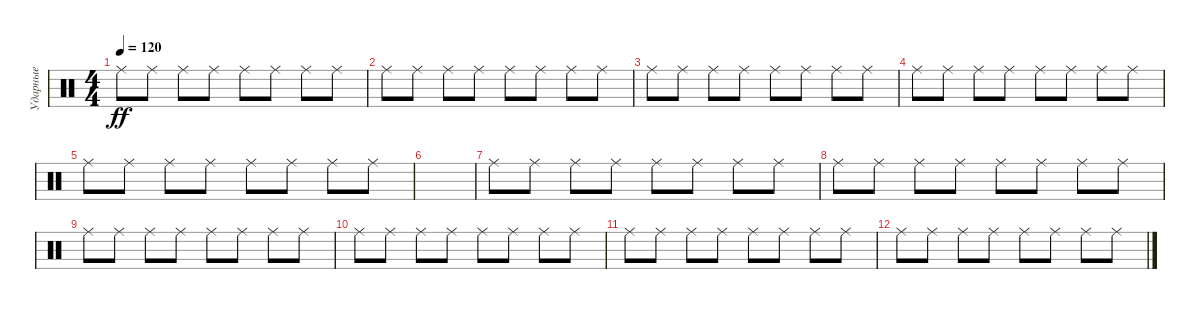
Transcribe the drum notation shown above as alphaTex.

\track ("Ударные" "Ударные") {instrument percussion}
\staff {score}
\articulation defaults
\ts (4 4)
\tempo 120
\clef neutral
\ks c "Ride (middle)".8{dy ff} "Ride (middle)".8 "Ride (middle)".8 "Ride (middle)".8 "Ride (middle)".8 "Ride (middle)".8 "Ride (middle)".8 "Ride (middle)".8
|
"Ride (middle)".8 "Ride (middle)".8 "Ride (middle)".8 "Ride (middle)".8 "Ride (middle)".8 "Ride (middle)".8 "Ride (middle)".8 "Ride (middle)".8 |
"Ride (middle)".8 "Ride (middle)".8 "Ride (middle)".8 "Ride (middle)".8 "Ride (middle)".8 "Ride (middle)".8 "Ride (middle)".8 "Ride (middle)".8 |
"Ride (middle)".8 "Ride (middle)".8 "Ride (middle)".8 "Ride (middle)".8 "Ride (middle)".8 "Ride (middle)".8 "Ride (middle)".8 "Ride (middle)".8 |
"Ride (middle)".8 "Ride (middle)".8 "Ride (middle)".8 "Ride (middle)".8 "Ride (middle)".8 "Ride (middle)".8 "Ride (middle)".8 "Ride (middle)".8 |
|
"Ride (middle)".8 "Ride (middle)".8 "Ride (middle)".8 "Ride (middle)".8 "Ride (middle)".8 "Ride (middle)".8 "Ride (middle)".8 "Ride (middle)".8 |
"Ride (middle)".8 "Ride (middle)".8 "Ride (middle)".8 "Ride (middle)".8 "Ride (middle)".8 "Ride (middle)".8 "Ride (middle)".8 "Ride (middle)".8 |
"Ride (middle)".8 "Ride (middle)".8 "Ride (middle)".8 "Ride (middle)".8 "Ride (middle)".8 "Ride (middle)".8 "Ride (middle)".8 "Ride (middle)".8 |
"Ride (middle)".8 "Ride (middle)".8 "Ride (middle)".8 "Ride (middle)".8 "Ride (middle)".8 "Ride (middle)".8 "Ride (middle)".8 "Ride (middle)".8 |
"Ride (middle)".8 "Ride (middle)".8 "Ride (middle)".8 "Ride (middle)".8 "Ride (middle)".8 "Ride (middle)".8 "Ride (middle)".8 "Ride (middle)".8 |
"Ride (middle)".8 "Ride (middle)".8 "Ride (middle)".8 "Ride (middle)".8 "Ride (middle)".8 "Ride (middle)".8 "Ride (middle)".8 "Ride (middle)".8
